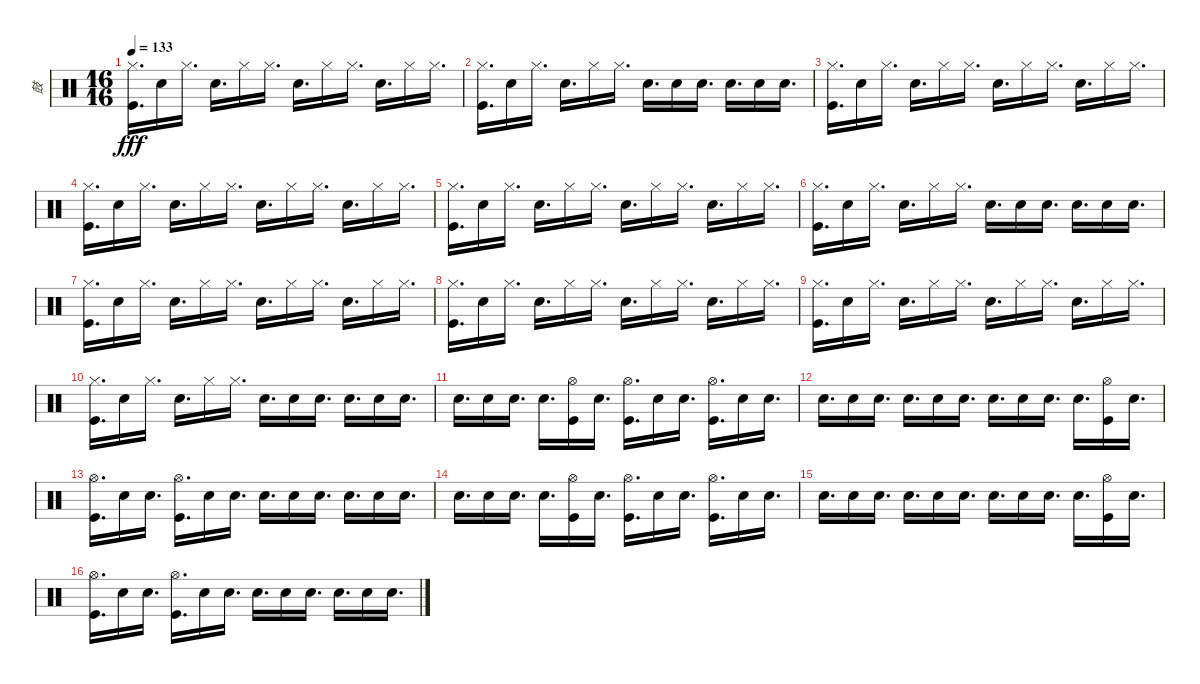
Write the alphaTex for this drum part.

\track ("鼓" "鼓") {instrument percussion}
\staff {score}
\articulation defaults
\ts (16 16)
\tempo 133
\clef neutral
\ks c
("Hi-Hat (closed)" "Kick (hit)").16{d dy fff} "Electric Snare (hit)".16 "Hi-Hat (closed)".16{d} "Electric Snare (hit)".16{d} "Hi-Hat (closed)".16 "Hi-Hat (closed)".16{d} "Snare (hit) 2".16{d} "Hi-Hat (closed)".16 "Hi-Hat (closed)".16{d} "Electric Snare (hit)".16{d} "Hi-Hat (closed)".16 "Hi-Hat (closed)".16{d} |
("Hi-Hat (closed)" "Kick (hit)").16{d} "Electric Snare (hit)".16 "Hi-Hat (closed)".16{d} "Electric Snare (hit)".16{d} "Hi-Hat (closed)".16 "Hi-Hat (closed)".16{d} "Electric Snare (hit)".16{d} "Electric Snare (hit)".16 "Electric Snare (hit)".16{d} "Electric Snare (hit)".16{d} "Electric Snare (hit)".16 "Electric Snare (hit)".16{d} |
("Hi-Hat (closed)" "Kick (hit)").16{d} "Electric Snare (hit)".16 "Hi-Hat (closed)".16{d} "Electric Snare (hit)".16{d} "Hi-Hat (closed)".16 "Hi-Hat (closed)".16{d} "Snare (hit) 2".16{d} "Hi-Hat (closed)".16 "Hi-Hat (closed)".16{d} "Electric Snare (hit)".16{d} "Hi-Hat (closed)".16 "Hi-Hat (closed)".16{d} |
("Hi-Hat (closed)" "Kick (hit)").16{d} "Electric Snare (hit)".16 "Hi-Hat (closed)".16{d} "Electric Snare (hit)".16{d} "Hi-Hat (closed)".16 "Hi-Hat (closed)".16{d} "Snare (hit) 2".16{d} "Hi-Hat (closed)".16 "Hi-Hat (closed)".16{d} "Electric Snare (hit)".16{d} "Hi-Hat (closed)".16 "Hi-Hat (closed)".16{d} |
("Hi-Hat (closed)" "Kick (hit)").16{d} "Electric Snare (hit)".16 "Hi-Hat (closed)".16{d} "Electric Snare (hit)".16{d} "Hi-Hat (closed)".16 "Hi-Hat (closed)".16{d} "Snare (hit) 2".16{d} "Hi-Hat (closed)".16 "Hi-Hat (closed)".16{d} "Electric Snare (hit)".16{d} "Hi-Hat (closed)".16 "Hi-Hat (closed)".16{d} |
("Hi-Hat (closed)" "Kick (hit)").16{d} "Electric Snare (hit)".16 "Hi-Hat (closed)".16{d} "Electric Snare (hit)".16{d} "Hi-Hat (closed)".16 "Hi-Hat (closed)".16{d} "Electric Snare (hit)".16{d} "Electric Snare (hit)".16 "Electric Snare (hit)".16{d} "Electric Snare (hit)".16{d} "Electric Snare (hit)".16 "Electric Snare (hit)".16{d} |
("Hi-Hat (closed)" "Kick (hit)").16{d} "Electric Snare (hit)".16 "Hi-Hat (closed)".16{d} "Electric Snare (hit)".16{d} "Hi-Hat (closed)".16 "Hi-Hat (closed)".16{d} "Snare (hit) 2".16{d} "Hi-Hat (closed)".16 "Hi-Hat (closed)".16{d} "Electric Snare (hit)".16{d} "Hi-Hat (closed)".16 "Hi-Hat (closed)".16{d} |
("Hi-Hat (closed)" "Kick (hit)").16{d} "Electric Snare (hit)".16 "Hi-Hat (closed)".16{d} "Electric Snare (hit)".16{d} "Hi-Hat (closed)".16 "Hi-Hat (closed)".16{d} "Snare (hit) 2".16{d} "Hi-Hat (closed)".16 "Hi-Hat (closed)".16{d} "Electric Snare (hit)".16{d} "Hi-Hat (closed)".16 "Hi-Hat (closed)".16{d} |
("Hi-Hat (closed)" "Kick (hit)").16{d} "Electric Snare (hit)".16 "Hi-Hat (closed)".16{d} "Electric Snare (hit)".16{d} "Hi-Hat (closed)".16 "Hi-Hat (closed)".16{d} "Snare (hit) 2".16{d} "Hi-Hat (closed)".16 "Hi-Hat (closed)".16{d} "Electric Snare (hit)".16{d} "Hi-Hat (closed)".16 "Hi-Hat (closed)".16{d} |
("Hi-Hat (closed)" "Kick (hit)").16{d} "Electric Snare (hit)".16 "Hi-Hat (closed)".16{d} "Electric Snare (hit)".16{d} "Hi-Hat (closed)".16 "Hi-Hat (closed)".16{d} "Electric Snare (hit)".16{d} "Electric Snare (hit)".16 "Electric Snare (hit)".16{d} "Electric Snare (hit)".16{d} "Electric Snare (hit)".16 "Electric Snare (hit)".16{d} |
"Snare (hit) 2".16{d} "Snare (hit) 2".16 "Snare (hit) 2".16{d} "Snare (hit) 2".16{d} ("Hi-Hat (open)" "Kick (hit)").16 "Snare (hit) 2".16{d} ("Hi-Hat (open)" "Kick (hit)").16{d} "Snare (hit) 2".16 "Snare (hit) 2".16{d} ("Hi-Hat (open)" "Kick (hit)").16{d} "Snare (hit) 2".16 "Snare (hit) 2".16{d} |
"Snare (hit) 2".16{d} "Snare (hit) 2".16 "Snare (hit) 2".16{d} "Snare (hit) 2".16{d} "Snare (hit) 2".16 "Snare (hit) 2".16{d} "Snare (hit) 2".16{d} "Snare (hit) 2".16 "Snare (hit) 2".16{d} "Snare (hit) 2".16{d} ("Hi-Hat (open)" "Kick (hit)").16 "Snare (hit) 2".16{d} |
("Hi-Hat (open)" "Kick (hit)").16{d} "Snare (hit) 2".16 "Snare (hit) 2".16{d} ("Hi-Hat (open)" "Kick (hit)").16{d} "Snare (hit) 2".16 "Snare (hit) 2".16{d} "Snare (hit) 2".16{d} "Snare (hit) 2".16 "Snare (hit) 2".16{d} "Snare (hit) 2".16{d} "Snare (hit) 2".16 "Snare (hit) 2".16{d} |
"Snare (hit) 2".16{d} "Snare (hit) 2".16 "Snare (hit) 2".16{d} "Snare (hit) 2".16{d} ("Hi-Hat (open)" "Kick (hit)").16 "Snare (hit) 2".16{d} ("Hi-Hat (open)" "Kick (hit)").16{d} "Snare (hit) 2".16 "Snare (hit) 2".16{d} ("Hi-Hat (open)" "Kick (hit)").16{d} "Snare (hit) 2".16 "Snare (hit) 2".16{d} |
"Snare (hit) 2".16{d} "Snare (hit) 2".16 "Snare (hit) 2".16{d} "Snare (hit) 2".16{d} "Snare (hit) 2".16 "Snare (hit) 2".16{d} "Snare (hit) 2".16{d} "Snare (hit) 2".16 "Snare (hit) 2".16{d} "Snare (hit) 2".16{d} ("Hi-Hat (open)" "Kick (hit)").16 "Snare (hit) 2".16{d} |
("Hi-Hat (open)" "Kick (hit)").16{d} "Snare (hit) 2".16 "Snare (hit) 2".16{d} ("Hi-Hat (open)" "Kick (hit)").16{d} "Snare (hit) 2".16 "Snare (hit) 2".16{d} "Snare (hit) 2".16{d} "Snare (hit) 2".16 "Snare (hit) 2".16{d} "Snare (hit) 2".16{d} "Snare (hit) 2".16 "Snare (hit) 2".16{d}
